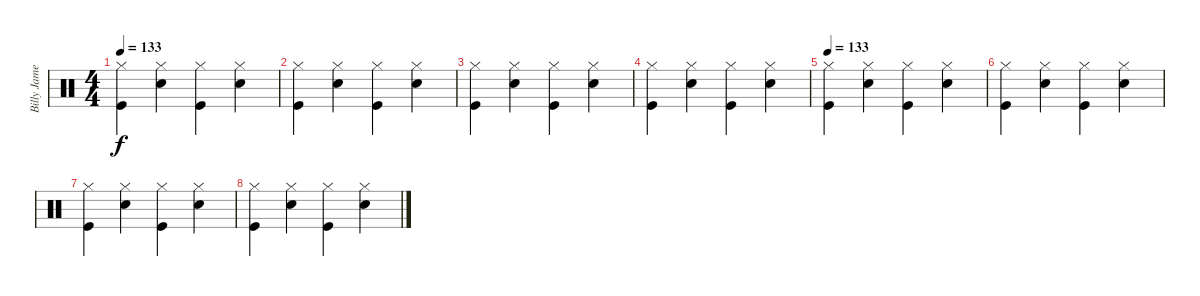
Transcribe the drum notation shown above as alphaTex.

\track ("Billy James (Drums)" "Billy Jame") {instrument percussion}
\staff {score}
\articulation defaults
\ts (4 4)
\tempo 133
\clef neutral
\ks c
("Kick (hit)" "Hi-Hat (closed)").4{dy f} ("Snare (hit) 2" "Hi-Hat (closed)").4 ("Kick (hit)" "Hi-Hat (closed)").4 ("Snare (hit) 2" "Hi-Hat (closed)").4 |
("Kick (hit)" "Hi-Hat (closed)").4 ("Snare (hit) 2" "Hi-Hat (closed)").4 ("Kick (hit)" "Hi-Hat (closed)").4 ("Snare (hit) 2" "Hi-Hat (closed)").4 |
("Kick (hit)" "Hi-Hat (closed)").4 ("Snare (hit) 2" "Hi-Hat (closed)").4 ("Kick (hit)" "Hi-Hat (closed)").4 ("Snare (hit) 2" "Hi-Hat (closed)").4 |
("Kick (hit)" "Hi-Hat (closed)").4 ("Snare (hit) 2" "Hi-Hat (closed)").4 ("Kick (hit)" "Hi-Hat (closed)").4 ("Snare (hit) 2" "Hi-Hat (closed)").4 |
\tempo 133
("Kick (hit)" "Hi-Hat (closed)").4 ("Snare (hit) 2" "Hi-Hat (closed)").4 ("Kick (hit)" "Hi-Hat (closed)").4 ("Snare (hit) 2" "Hi-Hat (closed)").4 |
("Kick (hit)" "Hi-Hat (closed)").4 ("Snare (hit) 2" "Hi-Hat (closed)").4 ("Kick (hit)" "Hi-Hat (closed)").4 ("Snare (hit) 2" "Hi-Hat (closed)").4 |
("Kick (hit)" "Hi-Hat (closed)").4 ("Snare (hit) 2" "Hi-Hat (closed)").4 ("Kick (hit)" "Hi-Hat (closed)").4 ("Snare (hit) 2" "Hi-Hat (closed)").4 |
("Kick (hit)" "Hi-Hat (closed)").4 ("Snare (hit) 2" "Hi-Hat (closed)").4 ("Kick (hit)" "Hi-Hat (closed)").4 ("Snare (hit) 2" "Hi-Hat (closed)").4
